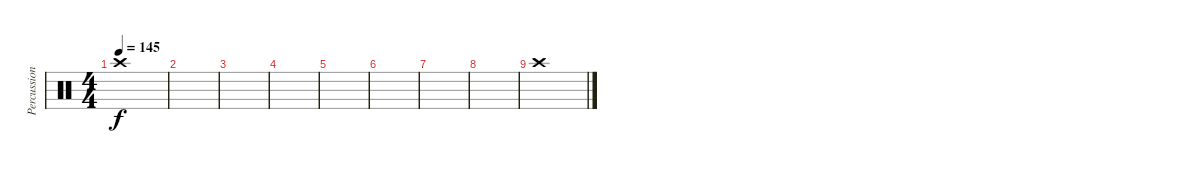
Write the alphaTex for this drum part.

\track ("Percussion" "Percussion") {instrument percussion}
\staff {score}
\articulation defaults
\ts (4 4)
\tempo 145
\clef neutral
\ks c "Crash high (hit)".1{dy f}
|
|
|
|
|
|
|
|
"Crash high (hit)".1
